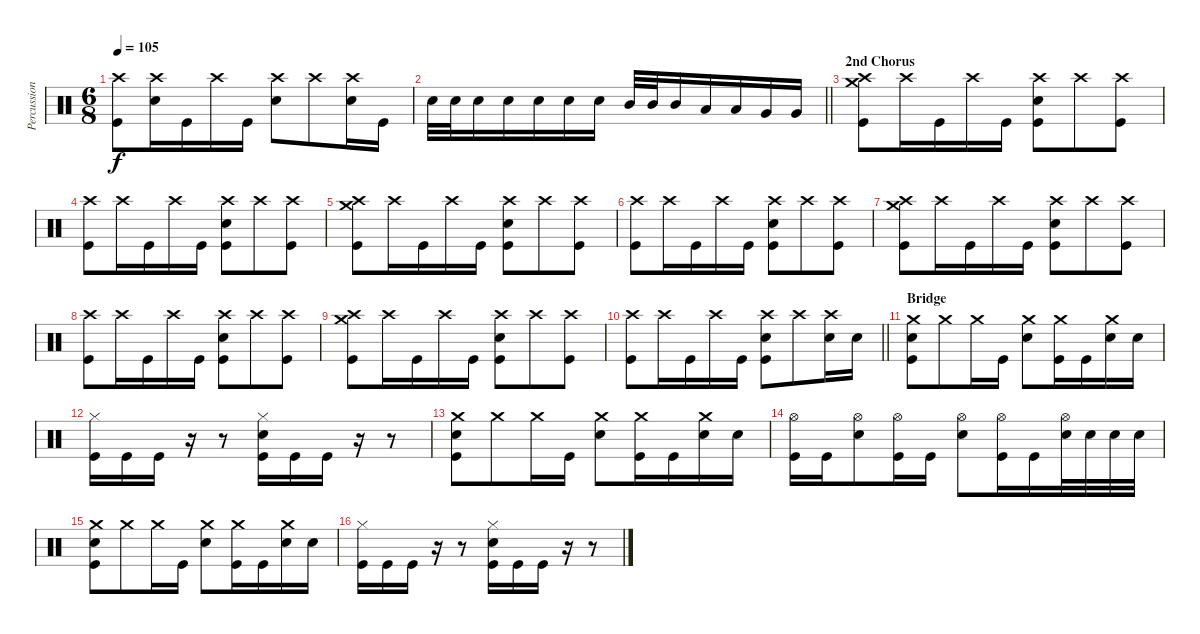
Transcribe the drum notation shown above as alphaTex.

\track ("Percussion" "Percussion") {instrument percussion}
\staff {score}
\articulation defaults
\ts (6 8)
\tempo 105
\clef neutral
\ks c
("Crash high (hit)" "Kick (hit)").8{dy f} ("Crash high (hit)" "Electric Snare (hit)").16 "Kick (hit)".16 "Crash high (hit)".16 "Kick (hit)".16 ("Crash high (hit)" "Electric Snare (hit)").8 "Crash high (hit)".8 ("Crash high (hit)" "Electric Snare (hit)").16 "Kick (hit)".16 |
\barLineRight lightlight "Electric Snare (hit)".32 "Electric Snare (hit)".32 "Electric Snare (hit)".16 "Electric Snare (hit)".16 "Electric Snare (hit)".16 "Electric Snare (hit)".16 "Electric Snare (hit)".16 "Mid Tom (hit)".32 "Mid Tom (hit)".32 "Mid Tom (hit)".16 "Low Tom (hit)".16 "Low Tom (hit)".16 "Very Low Tom (hit)".16 "Very Low Tom (hit)".16
|
\section ("" "2nd Chorus")
("Crash medium (hit)" "Crash high (hit)" "Kick (hit)").8 "Crash high (hit)".16 "Kick (hit)".16 "Crash high (hit)".16 "Kick (hit)".16 ("Crash high (hit)" "Electric Snare (hit)" "Kick (hit)").8 "Crash high (hit)".8 ("Crash high (hit)" "Kick (hit)").8 |
("Crash high (hit)" "Kick (hit)").8 "Crash high (hit)".16 "Kick (hit)".16 "Crash high (hit)".16 "Kick (hit)".16 ("Crash high (hit)" "Electric Snare (hit)" "Kick (hit)").8 "Crash high (hit)".8 ("Crash high (hit)" "Kick (hit)").8 |
("Crash medium (hit)" "Crash high (hit)" "Kick (hit)").8 "Crash high (hit)".16 "Kick (hit)".16 "Crash high (hit)".16 "Kick (hit)".16 ("Crash high (hit)" "Electric Snare (hit)" "Kick (hit)").8 "Crash high (hit)".8 ("Crash high (hit)" "Kick (hit)").8 |
("Crash high (hit)" "Kick (hit)").8 "Crash high (hit)".16 "Kick (hit)".16 "Crash high (hit)".16 "Kick (hit)".16 ("Crash high (hit)" "Electric Snare (hit)" "Kick (hit)").8 "Crash high (hit)".8 ("Crash high (hit)" "Kick (hit)").8 |
("Crash medium (hit)" "Crash high (hit)" "Kick (hit)").8 "Crash high (hit)".16 "Kick (hit)".16 "Crash high (hit)".16 "Kick (hit)".16 ("Crash high (hit)" "Electric Snare (hit)" "Kick (hit)").8 "Crash high (hit)".8 ("Crash high (hit)" "Kick (hit)").8 |
("Crash high (hit)" "Kick (hit)").8 "Crash high (hit)".16 "Kick (hit)".16 "Crash high (hit)".16 "Kick (hit)".16 ("Crash high (hit)" "Electric Snare (hit)" "Kick (hit)").8 "Crash high (hit)".8 ("Crash high (hit)" "Kick (hit)").8 |
("Crash medium (hit)" "Crash high (hit)" "Kick (hit)").8 "Crash high (hit)".16 "Kick (hit)".16 "Crash high (hit)".16 "Kick (hit)".16 ("Crash high (hit)" "Electric Snare (hit)" "Kick (hit)").8 "Crash high (hit)".8 ("Crash high (hit)" "Kick (hit)").8 |
\barLineRight lightlight
("Crash high (hit)" "Kick (hit)").8 "Crash high (hit)".16 "Kick (hit)".16 "Crash high (hit)".16 "Kick (hit)".16 ("Crash high (hit)" "Electric Snare (hit)" "Kick (hit)").8 "Crash high (hit)".8 ("Crash high (hit)" "Electric Snare (hit)").16 "Electric Snare (hit)".16 |
\section ("" "Bridge")
("Crash medium (hit)" "Electric Snare (hit)" "Kick (hit)").8 "Crash medium (hit)".8 "Crash medium (hit)".16 "Kick (hit)".16 ("Crash medium (hit)" "Electric Snare (hit)").8 ("Crash medium (hit)" "Kick (hit)").16 "Kick (hit)".16 ("Crash medium (hit)" "Electric Snare (hit)").16 "Electric Snare (hit)".16 |
("Hi-Hat (closed)" "Kick (hit)").16 "Kick (hit)".16 "Kick (hit)".16 r.16 r.8 ("Hi-Hat (closed)" "Electric Snare (hit)" "Kick (hit)").16 "Kick (hit)".16 "Kick (hit)".16 r.16 r.8 |
("Crash medium (hit)" "Electric Snare (hit)" "Kick (hit)").8 "Crash medium (hit)".8 "Crash medium (hit)".16 "Kick (hit)".16 ("Crash medium (hit)" "Electric Snare (hit)").8 ("Crash medium (hit)" "Kick (hit)").16 "Kick (hit)".16 ("Crash medium (hit)" "Electric Snare (hit)").16 "Electric Snare (hit)".16 |
("Hi-Hat (open)" "Kick (hit)").16 "Kick (hit)".16 ("Hi-Hat (open)" "Electric Snare (hit)").8 ("Hi-Hat (open)" "Kick (hit)").16 "Kick (hit)".16 ("Hi-Hat (open)" "Electric Snare (hit)").8 ("Hi-Hat (open)" "Kick (hit)").16 "Kick (hit)".16 ("Hi-Hat (open)" "Electric Snare (hit)").32 "Electric Snare (hit)".32 "Electric Snare (hit)".32 "Electric Snare (hit)".32 |
("Crash medium (hit)" "Electric Snare (hit)" "Kick (hit)").8 "Crash medium (hit)".8 "Crash medium (hit)".16 "Kick (hit)".16 ("Crash medium (hit)" "Electric Snare (hit)").8 ("Crash medium (hit)" "Kick (hit)").16 "Kick (hit)".16 ("Crash medium (hit)" "Electric Snare (hit)").16 "Electric Snare (hit)".16 |
("Hi-Hat (closed)" "Kick (hit)").16 "Kick (hit)".16 "Kick (hit)".16 r.16 r.8 ("Hi-Hat (closed)" "Electric Snare (hit)" "Kick (hit)").16 "Kick (hit)".16 "Kick (hit)".16 r.16 r.8
